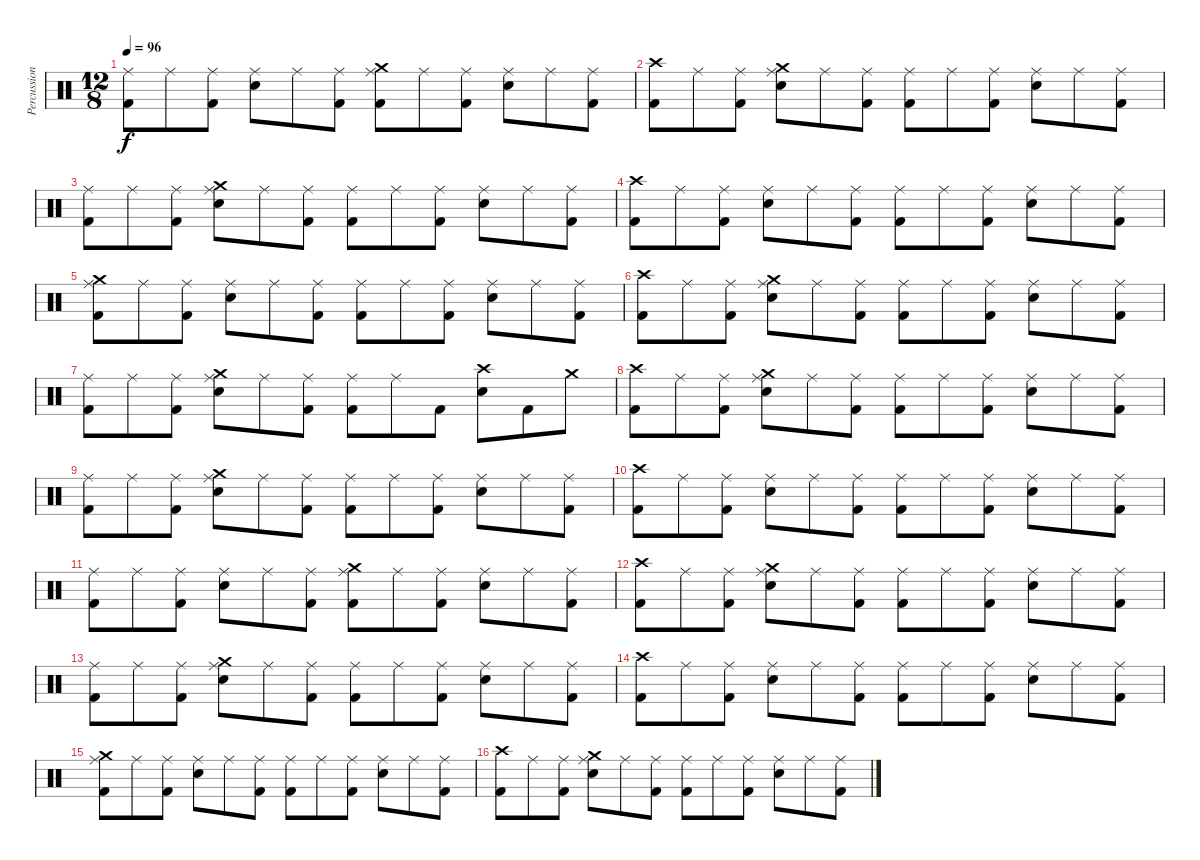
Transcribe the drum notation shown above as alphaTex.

\track ("Percussion" "Percussion") {instrument percussion}
\staff {score}
\articulation defaults
\ts (12 8)
\tempo 96
\clef neutral
\ks c
("Ride (middle)" "Kick (hit) 2").8{dy f} "Ride (middle)".8 ("Ride (middle)" "Kick (hit) 2").8 ("Ride (middle)" "Electric Snare (hit)").8 "Ride (middle)".8 ("Ride (middle)" "Kick (hit) 2").8 ("Crash medium (hit)" "Ride (middle)" "Kick (hit) 2").8 "Ride (middle)".8 ("Ride (middle)" "Kick (hit) 2").8 ("Ride (middle)" "Electric Snare (hit)").8 "Ride (middle)".8 ("Ride (middle)" "Kick (hit) 2").8 |
("Crash high (hit)" "Kick (hit) 2").8 "Ride (middle)".8 ("Ride (middle)" "Kick (hit) 2").8 ("Crash medium (hit)" "Ride (middle)" "Electric Snare (hit)").8 "Ride (middle)".8 ("Ride (middle)" "Kick (hit) 2").8 ("Ride (middle)" "Kick (hit) 2").8 "Ride (middle)".8 ("Ride (middle)" "Kick (hit) 2").8 ("Ride (middle)" "Electric Snare (hit)").8 "Ride (middle)".8 ("Ride (middle)" "Kick (hit) 2").8 |
("Ride (middle)" "Kick (hit) 2").8 "Ride (middle)".8 ("Ride (middle)" "Kick (hit) 2").8 ("Crash medium (hit)" "Ride (middle)" "Electric Snare (hit)").8 "Ride (middle)".8 ("Ride (middle)" "Kick (hit) 2").8 ("Ride (middle)" "Kick (hit) 2").8 "Ride (middle)".8 ("Ride (middle)" "Kick (hit) 2").8 ("Ride (middle)" "Electric Snare (hit)").8 "Ride (middle)".8 ("Ride (middle)" "Kick (hit) 2").8 |
("Crash high (hit)" "Kick (hit) 2").8 "Ride (middle)".8 ("Ride (middle)" "Kick (hit) 2").8 ("Ride (middle)" "Electric Snare (hit)").8 "Ride (middle)".8 ("Ride (middle)" "Kick (hit) 2").8 ("Ride (middle)" "Kick (hit) 2").8 "Ride (middle)".8 ("Ride (middle)" "Kick (hit) 2").8 ("Ride (middle)" "Electric Snare (hit)").8 "Ride (middle)".8 ("Ride (middle)" "Kick (hit) 2").8 |
("Crash medium (hit)" "Ride (middle)" "Kick (hit) 2").8 "Ride (middle)".8 ("Ride (middle)" "Kick (hit) 2").8 ("Ride (middle)" "Electric Snare (hit)").8 "Ride (middle)".8 ("Ride (middle)" "Kick (hit) 2").8 ("Ride (middle)" "Kick (hit) 2").8 "Ride (middle)".8 ("Ride (middle)" "Kick (hit) 2").8 ("Ride (middle)" "Electric Snare (hit)").8 "Ride (middle)".8 ("Ride (middle)" "Kick (hit) 2").8 |
("Crash high (hit)" "Kick (hit) 2").8 "Ride (middle)".8 ("Ride (middle)" "Kick (hit) 2").8 ("Crash medium (hit)" "Ride (middle)" "Electric Snare (hit)").8 "Ride (middle)".8 ("Ride (middle)" "Kick (hit) 2").8 ("Ride (middle)" "Kick (hit) 2").8 "Ride (middle)".8 ("Ride (middle)" "Kick (hit) 2").8 ("Ride (middle)" "Electric Snare (hit)").8 "Ride (middle)".8 ("Ride (middle)" "Kick (hit) 2").8 |
("Ride (middle)" "Kick (hit) 2").8 "Ride (middle)".8 ("Ride (middle)" "Kick (hit) 2").8 ("Crash medium (hit)" "Ride (middle)" "Electric Snare (hit)").8 "Ride (middle)".8 ("Ride (middle)" "Kick (hit) 2").8 ("Ride (middle)" "Kick (hit) 2").8 "Ride (middle)".8 "Kick (hit) 2".8 ("Crash high (hit)" "Electric Snare (hit)").8 "Kick (hit) 2".8 "Crash medium (hit)".8 |
("Crash high (hit)" "Kick (hit) 2").8 "Ride (middle)".8 ("Ride (middle)" "Kick (hit) 2").8 ("Crash medium (hit)" "Ride (middle)" "Electric Snare (hit)").8 "Ride (middle)".8 ("Ride (middle)" "Kick (hit) 2").8 ("Ride (middle)" "Kick (hit) 2").8 "Ride (middle)".8 ("Ride (middle)" "Kick (hit) 2").8 ("Ride (middle)" "Electric Snare (hit)").8 "Ride (middle)".8 ("Ride (middle)" "Kick (hit) 2").8 |
("Ride (middle)" "Kick (hit) 2").8 "Ride (middle)".8 ("Ride (middle)" "Kick (hit) 2").8 ("Crash medium (hit)" "Ride (middle)" "Electric Snare (hit)").8 "Ride (middle)".8 ("Ride (middle)" "Kick (hit) 2").8 ("Ride (middle)" "Kick (hit) 2").8 "Ride (middle)".8 ("Ride (middle)" "Kick (hit) 2").8 ("Ride (middle)" "Electric Snare (hit)").8 "Ride (middle)".8 ("Ride (middle)" "Kick (hit) 2").8 |
("Crash high (hit)" "Kick (hit) 2").8 "Ride (middle)".8 ("Ride (middle)" "Kick (hit) 2").8 ("Ride (middle)" "Electric Snare (hit)").8 "Ride (middle)".8 ("Ride (middle)" "Kick (hit) 2").8 ("Ride (middle)" "Kick (hit) 2").8 "Ride (middle)".8 ("Ride (middle)" "Kick (hit) 2").8 ("Ride (middle)" "Electric Snare (hit)").8 "Ride (middle)".8 ("Ride (middle)" "Kick (hit) 2").8 |
("Ride (middle)" "Kick (hit) 2").8 "Ride (middle)".8 ("Ride (middle)" "Kick (hit) 2").8 ("Ride (middle)" "Electric Snare (hit)").8 "Ride (middle)".8 ("Ride (middle)" "Kick (hit) 2").8 ("Crash medium (hit)" "Ride (middle)" "Kick (hit) 2").8 "Ride (middle)".8 ("Ride (middle)" "Kick (hit) 2").8 ("Ride (middle)" "Electric Snare (hit)").8 "Ride (middle)".8 ("Ride (middle)" "Kick (hit) 2").8 |
("Crash high (hit)" "Kick (hit) 2").8 "Ride (middle)".8 ("Ride (middle)" "Kick (hit) 2").8 ("Crash medium (hit)" "Ride (middle)" "Electric Snare (hit)").8 "Ride (middle)".8 ("Ride (middle)" "Kick (hit) 2").8 ("Ride (middle)" "Kick (hit) 2").8 "Ride (middle)".8 ("Ride (middle)" "Kick (hit) 2").8 ("Ride (middle)" "Electric Snare (hit)").8 "Ride (middle)".8 ("Ride (middle)" "Kick (hit) 2").8 |
("Ride (middle)" "Kick (hit) 2").8 "Ride (middle)".8 ("Ride (middle)" "Kick (hit) 2").8 ("Crash medium (hit)" "Ride (middle)" "Electric Snare (hit)").8 "Ride (middle)".8 ("Ride (middle)" "Kick (hit) 2").8 ("Ride (middle)" "Kick (hit) 2").8 "Ride (middle)".8 ("Ride (middle)" "Kick (hit) 2").8 ("Ride (middle)" "Electric Snare (hit)").8 "Ride (middle)".8 ("Ride (middle)" "Kick (hit) 2").8 |
("Crash high (hit)" "Kick (hit) 2").8 "Ride (middle)".8 ("Ride (middle)" "Kick (hit) 2").8 ("Ride (middle)" "Electric Snare (hit)").8 "Ride (middle)".8 ("Ride (middle)" "Kick (hit) 2").8 ("Ride (middle)" "Kick (hit) 2").8 "Ride (middle)".8 ("Ride (middle)" "Kick (hit) 2").8 ("Ride (middle)" "Electric Snare (hit)").8 "Ride (middle)".8 ("Ride (middle)" "Kick (hit) 2").8 |
("Crash medium (hit)" "Ride (middle)" "Kick (hit) 2").8 "Ride (middle)".8 ("Ride (middle)" "Kick (hit) 2").8 ("Ride (middle)" "Electric Snare (hit)").8 "Ride (middle)".8 ("Ride (middle)" "Kick (hit) 2").8 ("Ride (middle)" "Kick (hit) 2").8 "Ride (middle)".8 ("Ride (middle)" "Kick (hit) 2").8 ("Ride (middle)" "Electric Snare (hit)").8 "Ride (middle)".8 ("Ride (middle)" "Kick (hit) 2").8 |
("Crash high (hit)" "Kick (hit) 2").8 "Ride (middle)".8 ("Ride (middle)" "Kick (hit) 2").8 ("Crash medium (hit)" "Ride (middle)" "Electric Snare (hit)").8 "Ride (middle)".8 ("Ride (middle)" "Kick (hit) 2").8 ("Ride (middle)" "Kick (hit) 2").8 "Ride (middle)".8 ("Ride (middle)" "Kick (hit) 2").8 ("Ride (middle)" "Electric Snare (hit)").8 "Ride (middle)".8 ("Ride (middle)" "Kick (hit) 2").8
